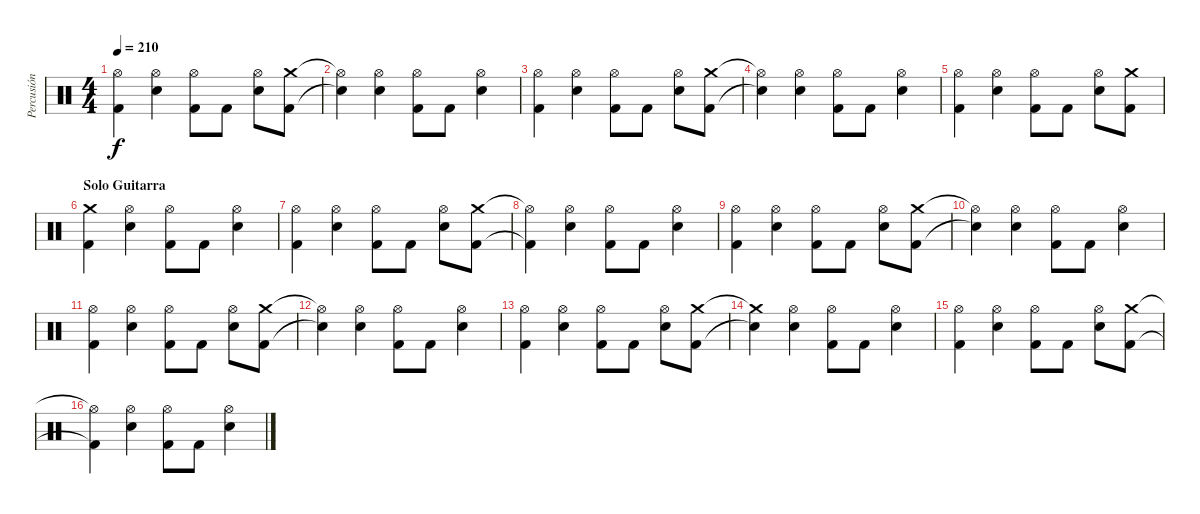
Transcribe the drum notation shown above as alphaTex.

\track ("Percusión" "Percusión") {instrument percussion}
\staff {score}
\articulation defaults
\ts (4 4)
\tempo 210
\clef neutral
\ks c
("Hi-Hat (open)" "Kick (hit) 2").4{dy f} ("Snare (hit) 2" "Hi-Hat (open)").4 ("Hi-Hat (open)" "Kick (hit) 2").8 "Kick (hit) 2".8 ("Snare (hit) 2" "Hi-Hat (open)").8 ("Crash medium (hit)" "Kick (hit) 2").8 |
("Hi-Hat (open)"{t} "Snare (hit)"{t}).4 ("Snare (hit) 2" "Hi-Hat (open)").4 ("Hi-Hat (open)" "Kick (hit) 2").8 "Kick (hit) 2".8 ("Snare (hit) 2" "Hi-Hat (open)").4 |
("Hi-Hat (open)" "Kick (hit) 2").4 ("Snare (hit) 2" "Hi-Hat (open)").4 ("Hi-Hat (open)" "Kick (hit) 2").8 "Kick (hit) 2".8 ("Snare (hit) 2" "Hi-Hat (open)").8 ("Crash medium (hit)" "Kick (hit) 2").8 |
("Hi-Hat (open)"{t} "Snare (hit)"{t}).4 ("Snare (hit) 2" "Hi-Hat (open)").4 ("Hi-Hat (open)" "Kick (hit) 2").8 "Kick (hit) 2".8 ("Snare (hit) 2" "Hi-Hat (open)").4 |
("Hi-Hat (open)" "Kick (hit) 2").4 ("Snare (hit) 2" "Hi-Hat (open)").4 ("Hi-Hat (open)" "Kick (hit) 2").8 "Kick (hit) 2".8 ("Snare (hit) 2" "Hi-Hat (open)").8 ("Crash medium (hit)" "Kick (hit) 2").8 |
\section ("" "Solo Guitarra")
("Crash medium (hit)" "Kick (hit) 2").4 ("Snare (hit) 2" "Hi-Hat (open)").4 ("Hi-Hat (open)" "Kick (hit) 2").8 "Kick (hit) 2".8 ("Snare (hit) 2" "Hi-Hat (open)").4 |
("Hi-Hat (open)" "Kick (hit) 2").4 ("Snare (hit) 2" "Hi-Hat (open)").4 ("Hi-Hat (open)" "Kick (hit) 2").8 "Kick (hit) 2".8 ("Snare (hit) 2" "Hi-Hat (open)").8 ("Crash medium (hit)" "Kick (hit) 2").8 |
("Hi-Hat (open)"{t} "Kick (hit) 2"{t}).4 ("Snare (hit) 2" "Hi-Hat (open)").4 ("Hi-Hat (open)" "Kick (hit) 2").8 "Kick (hit) 2".8 ("Snare (hit) 2" "Hi-Hat (open)").4 |
("Hi-Hat (open)" "Kick (hit) 2").4 ("Snare (hit) 2" "Hi-Hat (open)").4 ("Hi-Hat (open)" "Kick (hit) 2").8 "Kick (hit) 2".8 ("Snare (hit) 2" "Hi-Hat (open)").8 ("Crash medium (hit)" "Kick (hit) 2").8 |
("Hi-Hat (open)"{t} "Snare (hit)"{t}).4 ("Snare (hit) 2" "Hi-Hat (open)").4 ("Hi-Hat (open)" "Kick (hit) 2").8 "Kick (hit) 2".8 ("Snare (hit) 2" "Hi-Hat (open)").4 |
("Hi-Hat (open)" "Kick (hit) 2").4 ("Snare (hit) 2" "Hi-Hat (open)").4 ("Hi-Hat (open)" "Kick (hit) 2").8 "Kick (hit) 2".8 ("Snare (hit) 2" "Hi-Hat (open)").8 ("Crash medium (hit)" "Kick (hit) 2").8 |
("Hi-Hat (open)"{t} "Snare (hit)"{t}).4 ("Snare (hit) 2" "Hi-Hat (open)").4 ("Hi-Hat (open)" "Kick (hit) 2").8 "Kick (hit) 2".8 ("Snare (hit) 2" "Hi-Hat (open)").4 |
("Hi-Hat (open)" "Kick (hit) 2").4 ("Snare (hit) 2" "Hi-Hat (open)").4 ("Hi-Hat (open)" "Kick (hit) 2").8 "Kick (hit) 2".8 ("Snare (hit) 2" "Hi-Hat (open)").8 ("Crash medium (hit)" "Kick (hit) 2").8 |
("Crash medium (hit)"{t} "Snare (hit)"{t}).4 ("Snare (hit) 2" "Hi-Hat (open)").4 ("Hi-Hat (open)" "Kick (hit) 2").8 "Kick (hit) 2".8 ("Snare (hit) 2" "Hi-Hat (open)").4 |
("Hi-Hat (open)" "Kick (hit) 2").4 ("Snare (hit) 2" "Hi-Hat (open)").4 ("Hi-Hat (open)" "Kick (hit) 2").8 "Kick (hit) 2".8 ("Snare (hit) 2" "Hi-Hat (open)").8 ("Crash medium (hit)" "Kick (hit) 2").8 |
("Hi-Hat (open)"{t} "Kick (hit) 2"{t}).4 ("Snare (hit) 2" "Hi-Hat (open)").4 ("Hi-Hat (open)" "Kick (hit) 2").8 "Kick (hit) 2".8 ("Snare (hit) 2" "Hi-Hat (open)").4
